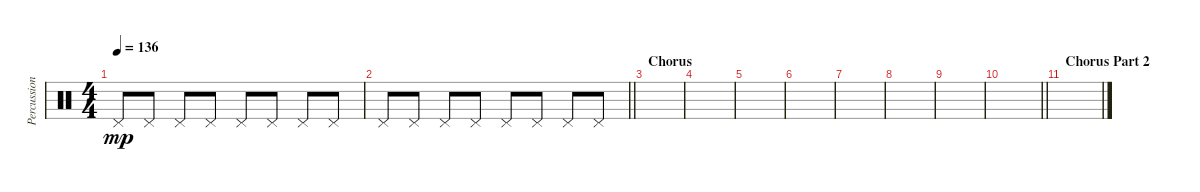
\track ("Percussion" "Percussion") {instrument percussion}
\staff {score}
\articulation defaults
\ts (4 4)
\tempo 136
\clef neutral
\ks c "Pedal Hi-Hat (hit)".8{dy mp} "Pedal Hi-Hat (hit)".8 "Pedal Hi-Hat (hit)".8 "Pedal Hi-Hat (hit)".8 "Pedal Hi-Hat (hit)".8 "Pedal Hi-Hat (hit)".8 "Pedal Hi-Hat (hit)".8 "Pedal Hi-Hat (hit)".8
|
\barLineRight lightlight "Pedal Hi-Hat (hit)".8 "Pedal Hi-Hat (hit)".8 "Pedal Hi-Hat (hit)".8 "Pedal Hi-Hat (hit)".8 "Pedal Hi-Hat (hit)".8 "Pedal Hi-Hat (hit)".8 "Pedal Hi-Hat (hit)".8 "Pedal Hi-Hat (hit)".8
|
\section ("" "Chorus")
|
|
|
|
|
|
|
\barLineRight lightlight
|
\section ("" "Chorus Part 2")
